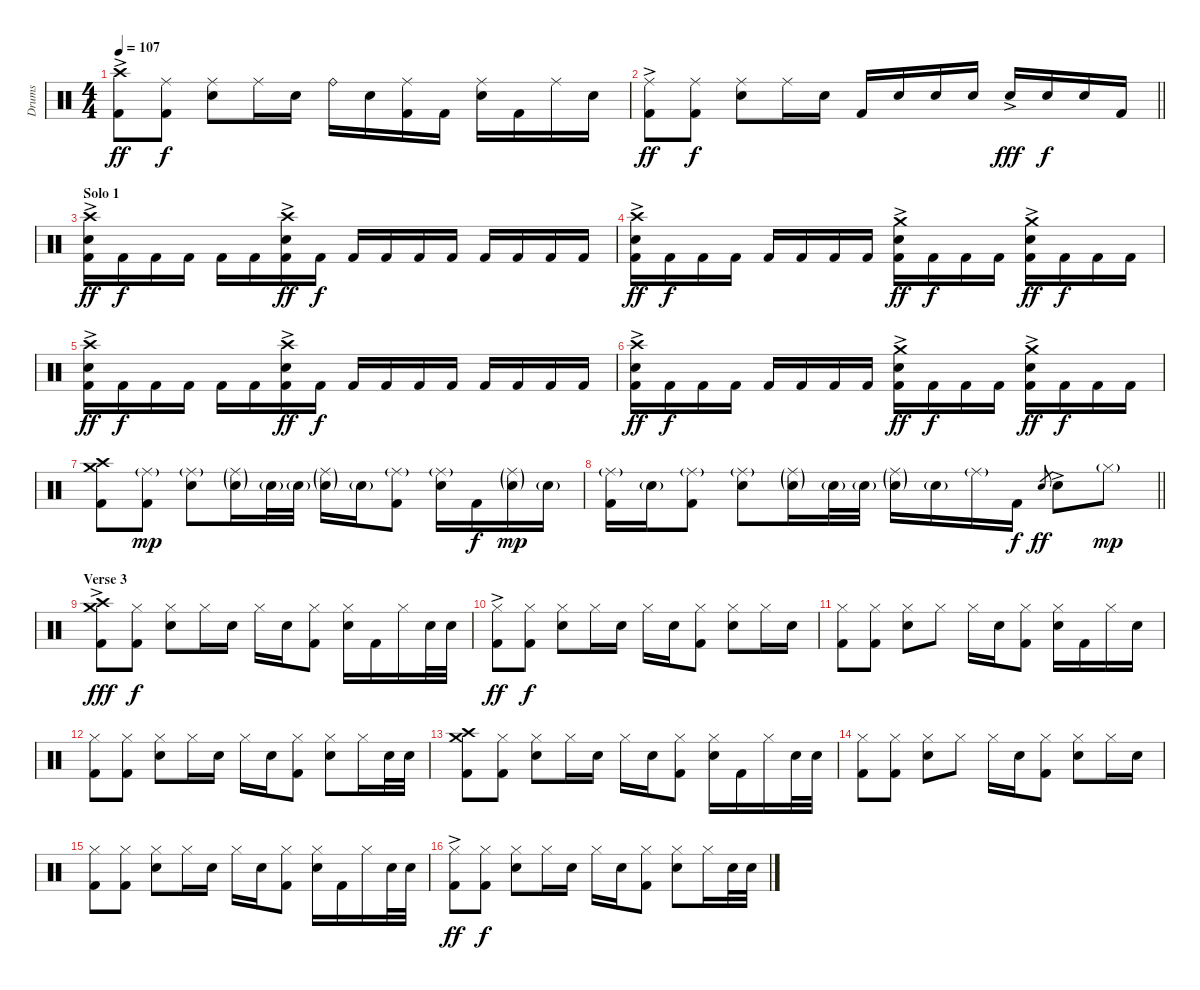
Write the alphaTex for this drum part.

\track ("Drums" "Drums") {instrument percussion}
\staff {score}
\articulation defaults
\ts (4 4)
\tempo 107
\clef neutral
\ks c
("Crash high (hit)" "Kick (hit) 2"{ac}).8{dy ff} ("Ride (middle)" "Kick (hit) 2").8{dy f} ("Ride (middle)" "Electric Snare (hit)").8 "Ride (middle)".16 "Electric Snare (hit)".16 "Ride (bell)".16 "Electric Snare (hit)".16 ("Ride (middle)" "Kick (hit) 2").16 "Kick (hit) 2".16 ("Ride (middle)" "Electric Snare (hit)").16 "Kick (hit) 2".16 "Ride (middle)".16 "Electric Snare (hit)".16 |
\barLineRight lightlight
("Ride (middle)" "Kick (hit) 2"{ac}).8{dy ff} ("Ride (middle)" "Kick (hit) 2").8{dy f} ("Ride (middle)" "Electric Snare (hit)").8 "Ride (middle)".16 "Electric Snare (hit)".16 "Kick (hit) 2".16 "Electric Snare (hit)".16 "Electric Snare (hit)".16 "Electric Snare (hit)".16 "Electric Snare (hit)"{ac}.16{dy fff} "Electric Snare (hit)".16{dy f} "Electric Snare (hit)".16 "Kick (hit) 2".16 |
\section ("" "Solo 1")
("Crash high (hit)" "Electric Snare (hit)" "Kick (hit) 2"{ac}).16{dy ff} "Kick (hit) 2".16{dy f} "Kick (hit) 2".16 "Kick (hit) 2".16 "Kick (hit) 2".16 "Kick (hit) 2".16 ("Crash high (hit)" "Electric Snare (hit)" "Kick (hit) 2"{ac}).16{dy ff} "Kick (hit) 2".16{dy f} "Kick (hit) 2".16 "Kick (hit) 2".16 "Kick (hit) 2".16 "Kick (hit) 2".16 "Kick (hit) 2".16 "Kick (hit) 2".16 "Kick (hit) 2".16 "Kick (hit) 2".16 |
("Crash high (hit)" "Electric Snare (hit)" "Kick (hit) 2"{ac}).16{dy ff} "Kick (hit) 2".16{dy f} "Kick (hit) 2".16 "Kick (hit) 2".16 "Kick (hit) 2".16 "Kick (hit) 2".16 "Kick (hit) 2".16 "Kick (hit) 2".16 ("Crash medium (hit)" "Electric Snare (hit)" "Kick (hit) 2"{ac}).16{dy ff} "Kick (hit) 2".16{dy f} "Kick (hit) 2".16 "Kick (hit) 2".16 ("Crash medium (hit)" "Electric Snare (hit)" "Kick (hit) 2"{ac}).16{dy ff} "Kick (hit) 2".16{dy f} "Kick (hit) 2".16 "Kick (hit) 2".16 |
("Crash high (hit)" "Electric Snare (hit)" "Kick (hit) 2"{ac}).16{dy ff} "Kick (hit) 2".16{dy f} "Kick (hit) 2".16 "Kick (hit) 2".16 "Kick (hit) 2".16 "Kick (hit) 2".16 ("Crash high (hit)" "Electric Snare (hit)" "Kick (hit) 2"{ac}).16{dy ff} "Kick (hit) 2".16{dy f} "Kick (hit) 2".16 "Kick (hit) 2".16 "Kick (hit) 2".16 "Kick (hit) 2".16 "Kick (hit) 2".16 "Kick (hit) 2".16 "Kick (hit) 2".16 "Kick (hit) 2".16 |
("Crash high (hit)" "Electric Snare (hit)" "Kick (hit) 2"{ac}).16{dy ff} "Kick (hit) 2".16{dy f} "Kick (hit) 2".16 "Kick (hit) 2".16 "Kick (hit) 2".16 "Kick (hit) 2".16 "Kick (hit) 2".16 "Kick (hit) 2".16 ("Crash medium (hit)" "Electric Snare (hit)" "Kick (hit) 2"{ac}).16{dy ff} "Kick (hit) 2".16{dy f} "Kick (hit) 2".16 "Kick (hit) 2".16 ("Crash medium (hit)" "Electric Snare (hit)" "Kick (hit) 2"{ac}).16{dy ff} "Kick (hit) 2".16{dy f} "Kick (hit) 2".16 "Kick (hit) 2".16 |
("Crash high (hit)" "Crash medium (hit)" "Kick (hit) 2").8{volume 8} ("Ride (middle)"{g} "Kick (hit) 2").8{dy mp} ("Ride (middle)"{g} "Electric Snare (hit)").8 ("Ride (middle)"{g} "Electric Snare (hit)"{g}).16 "Electric Snare (hit)"{g}.32 "Electric Snare (hit)"{g}.32 ("Ride (middle)"{g} "Electric Snare (hit)"{g}).16 "Electric Snare (hit)"{g}.16 ("Ride (middle)"{g} "Kick (hit) 2").8 ("Ride (middle)"{g} "Electric Snare (hit)").16 "Kick (hit) 2".16{dy f} ("Ride (middle)"{g} "Electric Snare (hit)"{g}).16{dy mp} "Electric Snare (hit)"{g}.16 |
\barLineRight lightlight
("Ride (middle)"{g} "Kick (hit) 2").16 "Electric Snare (hit)"{g}.16 ("Ride (middle)"{g} "Kick (hit) 2").8 ("Ride (middle)"{g} "Electric Snare (hit)").8 ("Ride (middle)"{g} "Electric Snare (hit)"{g}).16 "Electric Snare (hit)"{g}.32 "Electric Snare (hit)"{g}.32 ("Ride (middle)"{g} "Electric Snare (hit)"{g}).16 "Electric Snare (hit)"{g}.16 "Ride (middle)"{g}.16 "Kick (hit) 2".16{dy f volume 15} "Electric Snare (hit)".8{gr dy ff} "Electric Snare (hit)"{ac}.8 "Hi-Hat (closed)"{g}.8{dy mp} |
\section ("" "Verse 3")
("Crash high (hit)" "Crash medium (hit)" "Kick (hit) 2"{ac}).8{dy fff volume 13} ("Hi-Hat (closed)" "Kick (hit) 2").8{dy f} ("Hi-Hat (closed)" "Electric Snare (hit)").8 "Hi-Hat (closed)".16 "Electric Snare (hit)".16 "Hi-Hat (closed)".16 "Electric Snare (hit)".16 ("Hi-Hat (closed)" "Kick (hit) 2").8 ("Hi-Hat (closed)" "Electric Snare (hit)").16 "Kick (hit) 2".16 "Hi-Hat (closed)".16 "Electric Snare (hit)".32 "Electric Snare (hit)".32 |
("Hi-Hat (closed)" "Kick (hit) 2"{ac}).8{dy ff} ("Hi-Hat (closed)" "Kick (hit) 2").8{dy f} ("Hi-Hat (closed)" "Electric Snare (hit)").8 "Hi-Hat (closed)".16 "Electric Snare (hit)".16 "Hi-Hat (closed)".16 "Electric Snare (hit)".16 ("Hi-Hat (closed)" "Kick (hit) 2").8 ("Hi-Hat (closed)" "Electric Snare (hit)").8 "Hi-Hat (closed)".16 "Electric Snare (hit)".16 |
("Hi-Hat (closed)" "Kick (hit) 2").8 ("Hi-Hat (closed)" "Kick (hit) 2").8 ("Hi-Hat (closed)" "Electric Snare (hit)").8 "Hi-Hat (closed)".8 "Hi-Hat (closed)".16 "Electric Snare (hit)".16 ("Hi-Hat (closed)" "Kick (hit) 2").8 ("Hi-Hat (closed)" "Electric Snare (hit)").16 "Kick (hit) 2".16 "Hi-Hat (closed)".16 "Electric Snare (hit)".16 |
("Hi-Hat (closed)" "Kick (hit) 2").8 ("Hi-Hat (closed)" "Kick (hit) 2").8 ("Hi-Hat (closed)" "Electric Snare (hit)").8 "Hi-Hat (closed)".16 "Electric Snare (hit)".16 "Hi-Hat (closed)".16 "Electric Snare (hit)".16 ("Hi-Hat (closed)" "Kick (hit) 2").8 ("Hi-Hat (closed)" "Electric Snare (hit)").8 "Hi-Hat (closed)".16 "Electric Snare (hit)".32 "Electric Snare (hit)".32 |
("Crash high (hit)" "Crash medium (hit)" "Kick (hit) 2").8 ("Hi-Hat (closed)" "Kick (hit) 2").8 ("Hi-Hat (closed)" "Electric Snare (hit)").8 "Hi-Hat (closed)".16 "Electric Snare (hit)".16 "Hi-Hat (closed)".16 "Electric Snare (hit)".16 ("Hi-Hat (closed)" "Kick (hit) 2").8 ("Hi-Hat (closed)" "Electric Snare (hit)").16 "Kick (hit) 2".16 "Hi-Hat (closed)".16 "Electric Snare (hit)".32 "Electric Snare (hit)".32 |
("Hi-Hat (closed)" "Kick (hit) 2").8 ("Hi-Hat (closed)" "Kick (hit) 2").8 ("Hi-Hat (closed)" "Electric Snare (hit)").8 "Hi-Hat (closed)".8 "Hi-Hat (closed)".16 "Electric Snare (hit)".16 ("Hi-Hat (closed)" "Kick (hit) 2").8 ("Hi-Hat (closed)" "Electric Snare (hit)").8 "Hi-Hat (closed)".16 "Electric Snare (hit)".16 |
("Hi-Hat (closed)" "Kick (hit) 2").8 ("Hi-Hat (closed)" "Kick (hit) 2").8 ("Hi-Hat (closed)" "Electric Snare (hit)").8 "Hi-Hat (closed)".16 "Electric Snare (hit)".16 "Hi-Hat (closed)".16 "Electric Snare (hit)".16 ("Hi-Hat (closed)" "Kick (hit) 2").8 ("Hi-Hat (closed)" "Electric Snare (hit)").16 "Kick (hit) 2".16 "Hi-Hat (closed)".16 "Electric Snare (hit)".32 "Electric Snare (hit)".32 |
("Hi-Hat (closed)" "Kick (hit) 2"{ac}).8{dy ff} ("Hi-Hat (closed)" "Kick (hit) 2").8{dy f} ("Hi-Hat (closed)" "Electric Snare (hit)").8 "Hi-Hat (closed)".16 "Electric Snare (hit)".16 "Hi-Hat (closed)".16 "Electric Snare (hit)".16 ("Hi-Hat (closed)" "Kick (hit) 2").8 ("Hi-Hat (closed)" "Electric Snare (hit)").8 "Hi-Hat (closed)".16 "Electric Snare (hit)".32 "Electric Snare (hit)".32
